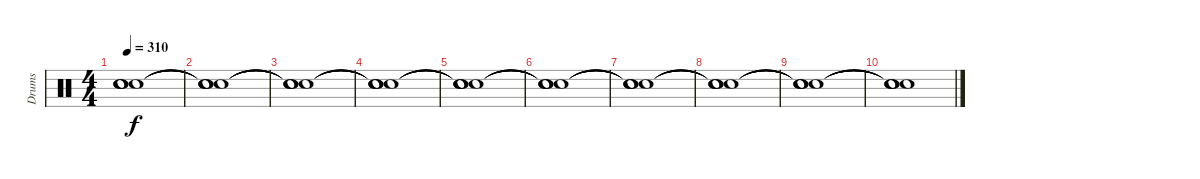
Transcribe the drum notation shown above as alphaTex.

\track ("Drums" "Drums") {solo instrument percussion}
\staff {score}
\articulation defaults
\ts (4 4)
\tempo 310
\clef neutral
\ks c
("Snare (hit)"{t} "Snare (hit)"{t} "Snare (hit)"{t} "Snare (hit)"{t}).1{dy f} |
("Snare (hit)"{t} "Snare (hit)"{t} "Snare (hit)"{t} "Snare (hit)"{t}).1 |
("Snare (hit)"{t} "Snare (hit)"{t} "Snare (hit)"{t} "Snare (hit)"{t}).1 |
("Snare (hit)"{t} "Snare (hit)"{t} "Snare (hit)"{t} "Snare (hit)"{t}).1 |
("Snare (hit)"{t} "Snare (hit)"{t} "Snare (hit)"{t} "Snare (hit)"{t}).1 |
("Snare (hit)"{t} "Snare (hit)"{t} "Snare (hit)"{t} "Snare (hit)"{t}).1 |
("Snare (hit)"{t} "Snare (hit)"{t} "Snare (hit)"{t} "Snare (hit)"{t}).1 |
("Snare (hit)"{t} "Snare (hit)"{t} "Snare (hit)"{t} "Snare (hit)"{t}).1 |
("Snare (hit)"{t} "Snare (hit)"{t} "Snare (hit)"{t} "Snare (hit)"{t}).1 |
("Snare (hit)"{t} "Snare (hit)"{t} "Snare (hit)"{t} "Snare (hit)"{t}).1
